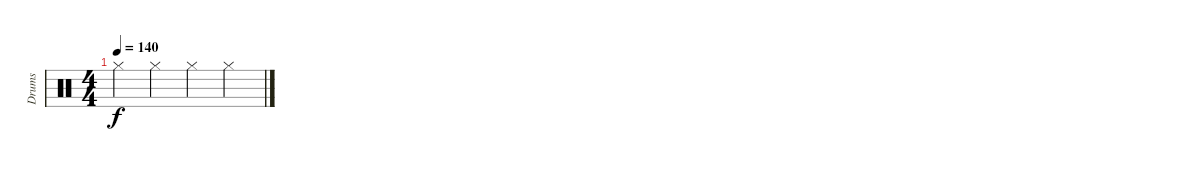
\track ("Drums" "Drums") {instrument percussion}
\staff {score}
\articulation defaults
\ts (4 4)
\tempo 140
\clef neutral
\ks c "Hi-Hat (closed)".4{dy f} "Hi-Hat (closed)".4 "Hi-Hat (closed)".4 "Hi-Hat (closed)".4
